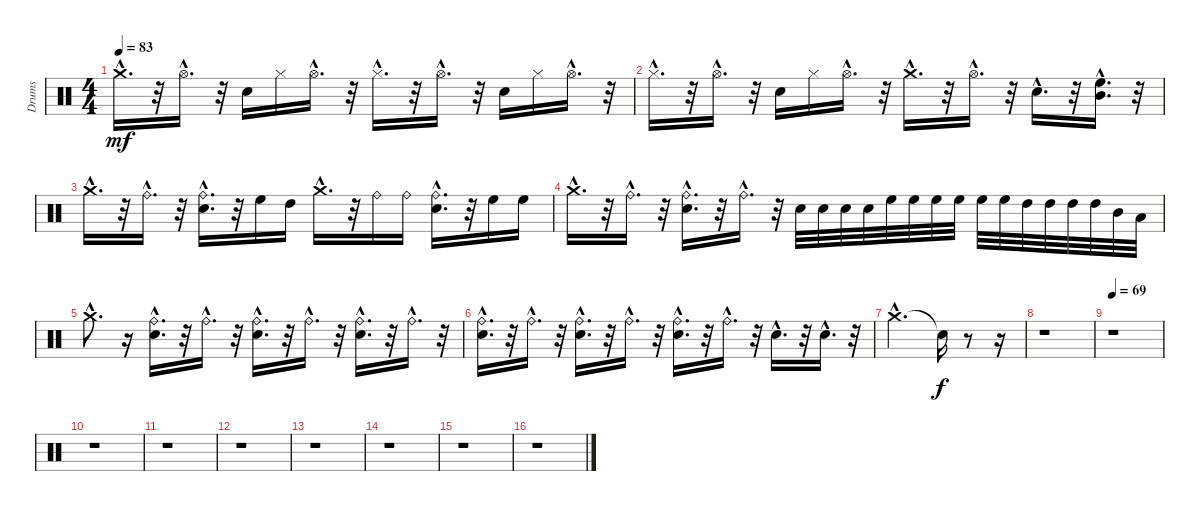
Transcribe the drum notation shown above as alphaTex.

\track ("Drums" "Drums") {instrument percussion}
\staff {score}
\articulation defaults
\ts (4 4)
\tempo 83
\clef neutral
\ks c "Crash medium (hit)"{hac}.16{d dy mf}
r.32 "Hi-Hat (open)"{hac}.16{d} r.32 "Electric Snare (hit)".16 "Hi-Hat (closed)".16 "Hi-Hat (open)"{hac}.16{d} r.32 "Hi-Hat (closed)"{hac}.16{d} r.32 "Hi-Hat (open)"{hac}.16{d} r.32 "Electric Snare (hit)".16 "Hi-Hat (closed)".16 "Hi-Hat (open)"{hac}.16{d} r.32 |
"Hi-Hat (closed)"{hac}.16{d} r.32 "Hi-Hat (open)"{hac}.16{d} r.32 "Electric Snare (hit)".16 "Hi-Hat (closed)".16 "Hi-Hat (open)"{hac}.16{d} r.32 "Crash medium (hit)"{hac}.16{d} r.32 "Hi-Hat (open)"{hac}.16{d} r.32 "Electric Snare (hit)"{hac}.16{d} r.32 ("High Floor Tom (hit)"{hac} "Mid Tom (hit)"{hac}).16{d} r.32 |
"Crash medium (hit)"{hac}.16{d} r.32 "Ride (bell)"{hac}.16{d} r.32 ("Electric Snare (hit)"{hac} "Ride (bell)"{hac}).16{d} r.32 "High Floor Tom (hit)".16 "High Tom (hit)".16 "Crash medium (hit)"{hac}.16{d} r.32 "Ride (bell)".16 "Ride (bell)".16 ("Electric Snare (hit)"{hac} "Ride (bell)"{hac}).16{d} r.32 "High Floor Tom (hit)".16 "High Floor Tom (hit)".16 |
"Crash medium (hit)"{hac}.16{d} r.32 "Ride (bell)"{hac}.16{d} r.32 ("Electric Snare (hit)"{hac} "Ride (bell)"{hac}).16{d} r.32 "Ride (bell)"{hac}.16{d} r.32 "Electric Snare (hit)".32 "Electric Snare (hit)".32 "Electric Snare (hit)".32 "Electric Snare (hit)".32 "High Floor Tom (hit)".32 "High Floor Tom (hit)".32 "High Floor Tom (hit)".32 "High Floor Tom (hit)".32 "High Floor Tom (hit)".32 "High Floor Tom (hit)".32 "High Tom (hit)".32 "High Tom (hit)".32 "High Tom (hit)".32 "High Tom (hit)".32 "Mid Tom (hit)".32 "Low Tom (hit)".32 |
"Crash medium (hit)"{hac}.8{d} r.16 ("Ride (bell)"{hac} "Electric Snare (hit)"{hac}).16{d} r.32 "Ride (bell)"{hac}.16{d} r.32 ("Electric Snare (hit)"{hac} "Ride (bell)"{hac}).16{d} r.32 "Ride (bell)"{hac}.16{d} r.32 ("Ride (bell)"{hac} "Electric Snare (hit)"{hac}).16{d} r.32 "Ride (bell)"{hac}.16{d} r.32 |
("Ride (bell)"{hac} "Electric Snare (hit)"{hac}).16{d} r.32 "Ride (bell)"{hac}.16{d} r.32 ("Electric Snare (hit)"{hac} "Ride (bell)"{hac}).16{d} r.32 "Ride (bell)"{hac}.16{d} r.32 ("Ride (bell)"{hac} "Electric Snare (hit)"{hac}).16{d} r.32 "Ride (bell)"{hac}.16{d} r.32 "Electric Snare (hit)"{hac}.16{d} r.32 "Electric Snare (hit)"{hac}.16{d} r.32 |
"Crash medium (hit)"{hac}.2{d} "Snare (hit)"{t}.16{dy f} r.8 r.16 |
r.1 |
\tempo 69
r.1 |
r.1 |
r.1 |
r.1 |
r.1 |
r.1 |
r.1 |
r.1
